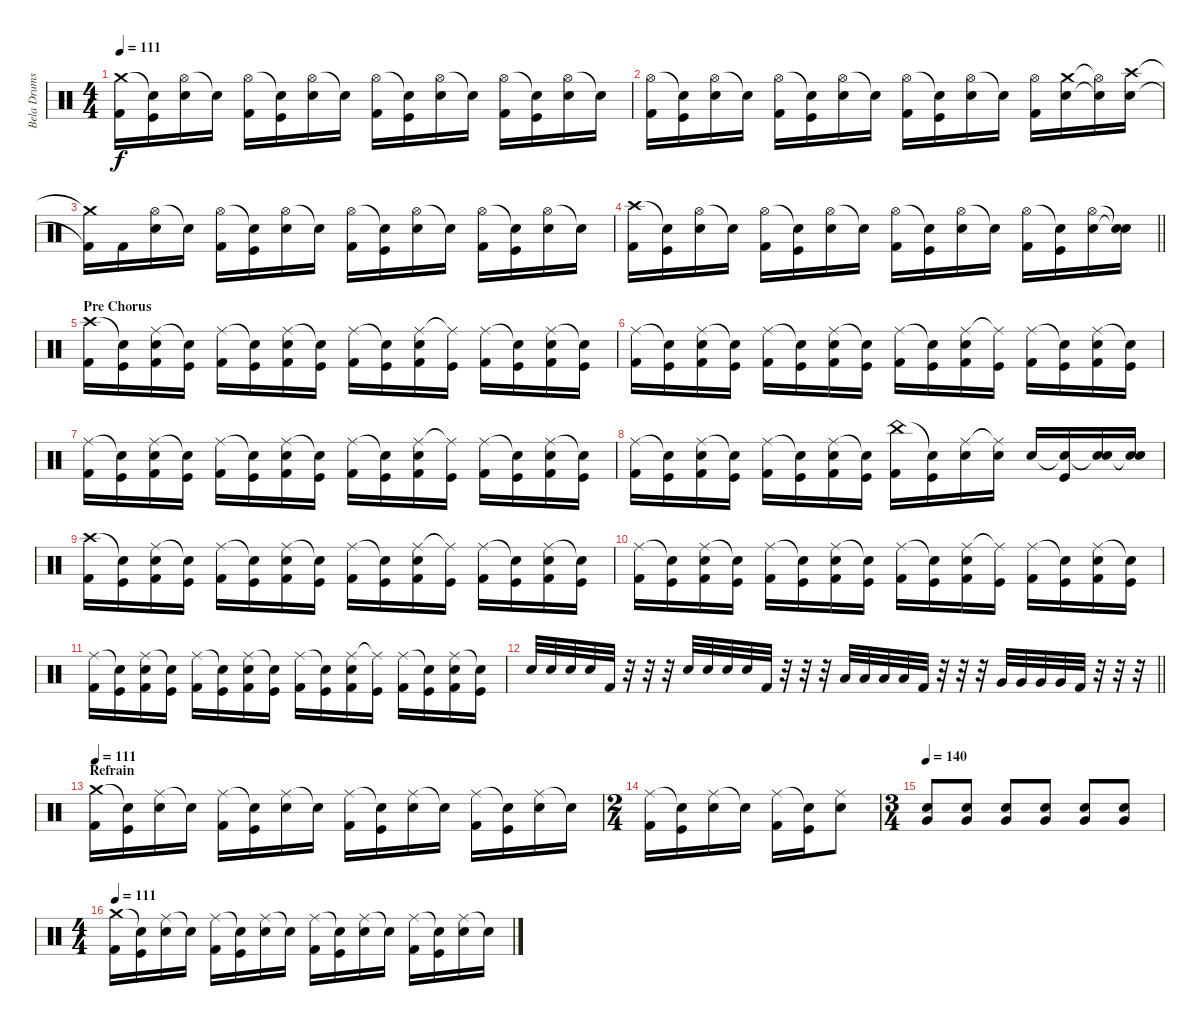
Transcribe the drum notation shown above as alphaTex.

\track ("Bela Drums" "Bela Drums") {instrument percussion}
\staff {score}
\articulation defaults
\ts (4 4)
\tempo 111
\clef neutral
\ks c
("Crash medium (hit)" "Kick (hit) 2").16{dy f} ("Snare (hit)"{t} "Kick (hit)").16 ("Hi-Hat (open)" "Snare (hit) 2").16 "Snare (hit)"{t}.16 ("Hi-Hat (open)" "Kick (hit) 2").16 ("Snare (hit)"{t} "Kick (hit)").16 ("Hi-Hat (open)" "Snare (hit) 2").16 "Snare (hit)"{t}.16 ("Hi-Hat (open)" "Kick (hit) 2").16 ("Snare (hit)"{t} "Kick (hit)").16 ("Hi-Hat (open)" "Snare (hit) 2").16 "Snare (hit)"{t}.16 ("Hi-Hat (open)" "Kick (hit) 2").16 ("Snare (hit)"{t} "Kick (hit)").16 ("Hi-Hat (open)" "Snare (hit) 2").16 "Snare (hit)"{t}.16 |
("Hi-Hat (open)" "Kick (hit) 2").16 ("Snare (hit)"{t} "Kick (hit)").16 ("Hi-Hat (open)" "Snare (hit) 2").16 "Snare (hit)"{t}.16 ("Hi-Hat (open)" "Kick (hit) 2").16 ("Snare (hit)"{t} "Kick (hit)").16 ("Hi-Hat (open)" "Snare (hit) 2").16 "Snare (hit)"{t}.16 ("Hi-Hat (open)" "Kick (hit) 2").16 ("Snare (hit)"{t} "Kick (hit)").16 ("Hi-Hat (open)" "Snare (hit) 2").16 "Snare (hit)"{t}.16 ("Hi-Hat (open)" "Kick (hit) 2").16 ("Crash medium (hit)" "Snare (hit) 2").16 ("Hi-Hat (open)"{t} "Snare (hit) 2"{t}).16 ("Crash high (hit)" "Snare (hit) 2").16 |
("Crash medium (hit)"{t} "Kick (hit) 2"{t}).16 "Kick (hit) 2".16 ("Hi-Hat (open)" "Snare (hit) 2").16 "Snare (hit)"{t}.16 ("Hi-Hat (open)" "Kick (hit) 2").16 ("Snare (hit)"{t} "Kick (hit)").16 ("Hi-Hat (open)" "Snare (hit) 2").16 "Snare (hit)"{t}.16 ("Hi-Hat (open)" "Kick (hit) 2").16 ("Snare (hit)"{t} "Kick (hit)").16 ("Hi-Hat (open)" "Snare (hit) 2").16 "Snare (hit)"{t}.16 ("Hi-Hat (open)" "Kick (hit) 2").16 ("Snare (hit)"{t} "Kick (hit)").16 ("Hi-Hat (open)" "Snare (hit) 2").16 "Snare (hit)"{t}.16 |
\barLineRight lightlight
("Crash high (hit)" "Kick (hit) 2").16 ("Snare (hit)"{t} "Kick (hit)").16 ("Hi-Hat (open)" "Snare (hit) 2").16 "Snare (hit)"{t}.16 ("Hi-Hat (open)" "Kick (hit) 2").16 ("Snare (hit)"{t} "Kick (hit)").16 ("Hi-Hat (open)" "Snare (hit) 2").16 "Snare (hit)"{t}.16 ("Hi-Hat (open)" "Kick (hit) 2").16 ("Snare (hit)"{t} "Kick (hit)").16 ("Hi-Hat (open)" "Snare (hit) 2").16 "Snare (hit)"{t}.16 ("Hi-Hat (open)" "Kick (hit) 2").16 ("Snare (hit)"{t} "Kick (hit)").16 ("Hi-Hat (open)" "Snare (hit) 2").16 ("Snare (hit)"{t} "Snare (hit)"{t}).16 |
\section ("" "Pre Chorus")
("Crash high (hit)" "Kick (hit) 2").16 ("Snare (hit)"{t} "Kick (hit)").16 ("Ride (middle)" "Kick (hit) 2" "Snare (hit) 2").16 ("Snare (hit)"{t} "Kick (hit)").16 ("Ride (middle)" "Kick (hit) 2").16 ("Snare (hit)"{t} "Kick (hit)").16 ("Ride (middle)" "Kick (hit) 2" "Snare (hit) 2").16 ("Snare (hit)"{t} "Kick (hit)").16 ("Ride (middle)" "Kick (hit) 2").16 ("Snare (hit)"{t} "Kick (hit)").16 ("Ride (middle)" "Kick (hit) 2" "Snare (hit) 2").16 ("Ride (middle)"{t} "Kick (hit)").16 ("Ride (middle)" "Kick (hit) 2").16 ("Snare (hit)"{t} "Kick (hit)").16 ("Ride (middle)" "Kick (hit) 2" "Snare (hit) 2").16 ("Snare (hit)"{t} "Kick (hit)").16 |
("Ride (middle)" "Kick (hit) 2").16 ("Snare (hit)"{t} "Kick (hit)").16 ("Ride (middle)" "Kick (hit) 2" "Snare (hit) 2").16 ("Snare (hit)"{t} "Kick (hit)").16 ("Ride (middle)" "Kick (hit) 2").16 ("Snare (hit)"{t} "Kick (hit)").16 ("Ride (middle)" "Kick (hit) 2" "Snare (hit) 2").16 ("Snare (hit)"{t} "Kick (hit)").16 ("Ride (middle)" "Kick (hit) 2").16 ("Snare (hit)"{t} "Kick (hit)").16 ("Ride (middle)" "Kick (hit) 2" "Snare (hit) 2").16 ("Ride (middle)"{t} "Kick (hit)").16 ("Ride (middle)" "Kick (hit) 2").16 ("Snare (hit)"{t} "Kick (hit)").16 ("Ride (middle)" "Kick (hit) 2" "Snare (hit) 2").16 ("Snare (hit)"{t} "Kick (hit)").16 |
("Ride (middle)" "Kick (hit) 2").16 ("Snare (hit)"{t} "Kick (hit)").16 ("Ride (middle)" "Kick (hit) 2" "Snare (hit) 2").16 ("Snare (hit)"{t} "Kick (hit)").16 ("Ride (middle)" "Kick (hit) 2").16 ("Snare (hit)"{t} "Kick (hit)").16 ("Ride (middle)" "Kick (hit) 2" "Snare (hit) 2").16 ("Snare (hit)"{t} "Kick (hit)").16 ("Ride (middle)" "Kick (hit) 2").16 ("Snare (hit)"{t} "Kick (hit)").16 ("Ride (middle)" "Kick (hit) 2" "Snare (hit) 2").16 ("Ride (middle)"{t} "Kick (hit)").16 ("Ride (middle)" "Kick (hit) 2").16 ("Snare (hit)"{t} "Kick (hit)").16 ("Ride (middle)" "Kick (hit) 2" "Snare (hit) 2").16 ("Snare (hit)"{t} "Kick (hit)").16 |
("Ride (middle)" "Kick (hit) 2").16 ("Snare (hit)"{t} "Kick (hit)").16 ("Ride (middle)" "Kick (hit) 2" "Snare (hit) 2").16 ("Snare (hit)"{t} "Kick (hit)").16 ("Ride (middle)" "Kick (hit) 2").16 ("Snare (hit)"{t} "Kick (hit)").16 ("Ride (middle)" "Kick (hit) 2" "Snare (hit) 2").16 ("Snare (hit)"{t} "Kick (hit)").16 ("China (hit)" "Kick (hit) 2").16 ("Snare (hit)"{t} "Kick (hit)").16 ("Ride (middle)" "Snare (hit) 2").16 ("Ride (middle)"{t} "Snare (hit) 2").16 "Snare (hit) 2".16 ("Snare (hit)"{t} "Kick (hit)").16 ("Snare (hit)"{t} "Snare (hit) 2").16 ("Snare (hit)"{t} "Snare (hit) 2").16 |
("Crash high (hit)" "Kick (hit) 2").16 ("Snare (hit)"{t} "Kick (hit)").16 ("Ride (middle)" "Kick (hit) 2" "Snare (hit) 2").16 ("Snare (hit)"{t} "Kick (hit)").16 ("Ride (middle)" "Kick (hit) 2").16 ("Snare (hit)"{t} "Kick (hit)").16 ("Ride (middle)" "Kick (hit) 2" "Snare (hit) 2").16 ("Snare (hit)"{t} "Kick (hit)").16 ("Ride (middle)" "Kick (hit) 2").16 ("Snare (hit)"{t} "Kick (hit)").16 ("Ride (middle)" "Kick (hit) 2" "Snare (hit) 2").16 ("Ride (middle)"{t} "Kick (hit)").16 ("Ride (middle)" "Kick (hit) 2").16 ("Snare (hit)"{t} "Kick (hit)").16 ("Ride (middle)" "Kick (hit) 2" "Snare (hit) 2").16 ("Snare (hit)"{t} "Kick (hit)").16 |
("Ride (middle)" "Kick (hit) 2").16 ("Snare (hit)"{t} "Kick (hit)").16 ("Ride (middle)" "Kick (hit) 2" "Snare (hit) 2").16 ("Snare (hit)"{t} "Kick (hit)").16 ("Ride (middle)" "Kick (hit) 2").16 ("Snare (hit)"{t} "Kick (hit)").16 ("Ride (middle)" "Kick (hit) 2" "Snare (hit) 2").16 ("Snare (hit)"{t} "Kick (hit)").16 ("Ride (middle)" "Kick (hit) 2").16 ("Snare (hit)"{t} "Kick (hit)").16 ("Ride (middle)" "Kick (hit) 2" "Snare (hit) 2").16 ("Ride (middle)"{t} "Kick (hit)").16 ("Ride (middle)" "Kick (hit) 2").16 ("Snare (hit)"{t} "Kick (hit)").16 ("Ride (middle)" "Kick (hit) 2" "Snare (hit) 2").16 ("Snare (hit)"{t} "Kick (hit)").16 |
("Ride (middle)" "Kick (hit) 2").16 ("Snare (hit)"{t} "Kick (hit)").16 ("Ride (middle)" "Kick (hit) 2" "Snare (hit) 2").16 ("Snare (hit)"{t} "Kick (hit)").16 ("Ride (middle)" "Kick (hit) 2").16 ("Snare (hit)"{t} "Kick (hit)").16 ("Ride (middle)" "Kick (hit) 2" "Snare (hit) 2").16 ("Snare (hit)"{t} "Kick (hit)").16 ("Ride (middle)" "Kick (hit) 2").16 ("Snare (hit)"{t} "Kick (hit)").16 ("Ride (middle)" "Kick (hit) 2" "Snare (hit) 2").16 ("Ride (middle)"{t} "Kick (hit)").16 ("Ride (middle)" "Kick (hit) 2").16 ("Snare (hit)"{t} "Kick (hit)").16 ("Ride (middle)" "Kick (hit) 2" "Snare (hit) 2").16 ("Snare (hit)"{t} "Kick (hit)").16 |
\barLineRight lightlight "Snare (hit) 2".32 "Snare (hit) 2".32 "Snare (hit) 2".32 "Snare (hit) 2".32 "Kick (hit) 2".32
r.32 r.32 r.32 "Snare (hit) 2".32 "Snare (hit) 2".32 "Snare (hit) 2".32 "Snare (hit) 2".32 "Kick (hit) 2".32 r.32 r.32 r.32 "Low Tom (hit)".32 "Low Tom (hit)".32 "Low Tom (hit)".32 "Low Tom (hit)".32 "Kick (hit) 2".32 r.32 r.32 r.32 "Very Low Tom (hit)".32 "Very Low Tom (hit)".32 "Very Low Tom (hit)".32 "Very Low Tom (hit)".32 "Kick (hit) 2".32 r.32 r.32 r.32 |
\section ("" "Refrain")
\tempo 111
("Crash medium (hit)" "Kick (hit) 2").16 ("Snare (hit)"{t} "Kick (hit)").16 ("Ride (middle)" "Snare (hit) 2").16 "Snare (hit)"{t}.16 ("Ride (middle)" "Kick (hit) 2").16 ("Snare (hit)"{t} "Kick (hit)").16 ("Ride (middle)" "Snare (hit) 2").16 "Snare (hit)"{t}.16 ("Ride (middle)" "Kick (hit) 2").16 ("Snare (hit)"{t} "Kick (hit)").16 ("Ride (middle)" "Snare (hit) 2").16 "Snare (hit)"{t}.16 ("Ride (middle)" "Kick (hit) 2").16 ("Snare (hit)"{t} "Kick (hit)").16 ("Ride (middle)" "Snare (hit) 2").16 "Snare (hit)"{t}.16 |
\ts (2 4)
("Ride (middle)" "Kick (hit) 2").16 ("Snare (hit)"{t} "Kick (hit)").16 ("Ride (middle)" "Snare (hit) 2").16 "Snare (hit)"{t}.16 ("Ride (middle)" "Kick (hit) 2").16 ("Snare (hit)"{t} "Kick (hit)").16 ("Ride (middle)" "Snare (hit) 2").8 |
\ts (3 4)
\tempo 140
("Very Low Tom (hit)" "Snare (hit) 2").8 ("Very Low Tom (hit)" "Snare (hit) 2").8 ("Very Low Tom (hit)" "Snare (hit) 2").8 ("Very Low Tom (hit)" "Snare (hit) 2").8 ("Very Low Tom (hit)" "Snare (hit) 2").8 ("Very Low Tom (hit)" "Snare (hit) 2").8 |
\ts (4 4)
\tempo 111
("Crash medium (hit)" "Kick (hit) 2").16 ("Snare (hit)"{t} "Kick (hit)").16 ("Ride (middle)" "Snare (hit) 2").16 "Snare (hit)"{t}.16 ("Ride (middle)" "Kick (hit) 2").16 ("Snare (hit)"{t} "Kick (hit)").16 ("Ride (middle)" "Snare (hit) 2").16 "Snare (hit)"{t}.16 ("Ride (middle)" "Kick (hit) 2").16 ("Snare (hit)"{t} "Kick (hit)").16 ("Ride (middle)" "Snare (hit) 2").16 "Snare (hit)"{t}.16 ("Ride (middle)" "Kick (hit) 2").16 ("Snare (hit)"{t} "Kick (hit)").16 ("Ride (middle)" "Snare (hit) 2").16 "Snare (hit)"{t}.16
